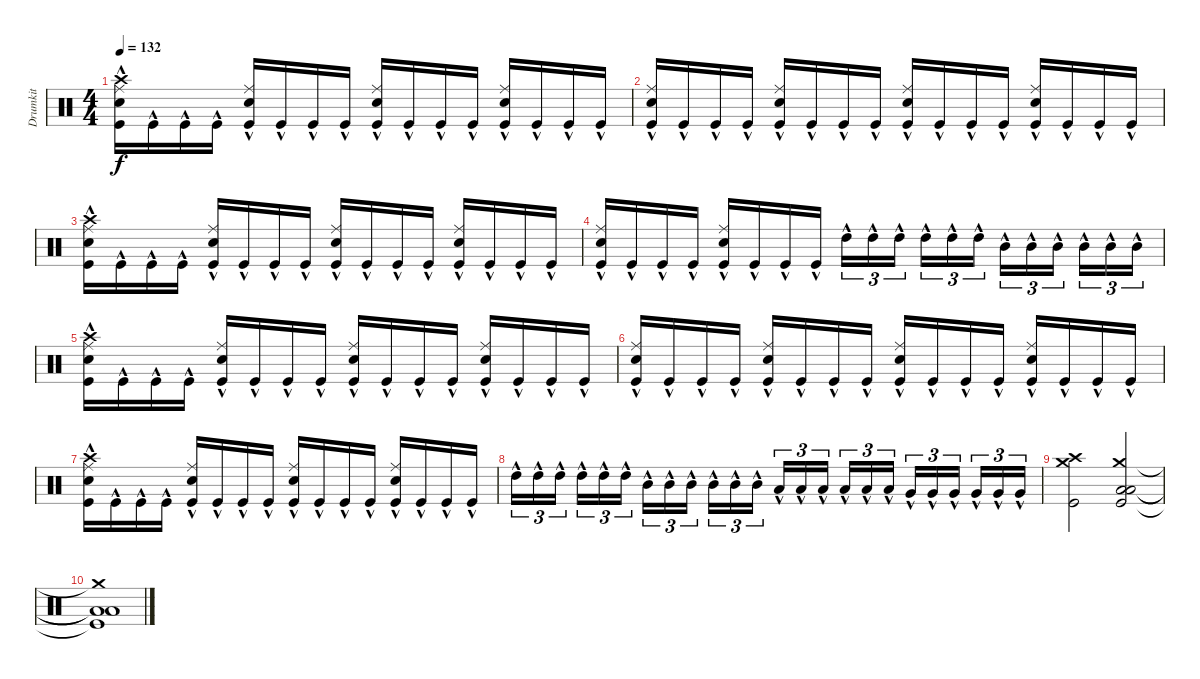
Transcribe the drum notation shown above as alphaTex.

\track ("Drumkit" "Drumkit") {instrument percussion}
\staff {score}
\articulation defaults
\ts (4 4)
\tempo 132
\clef neutral
\ks c
("Crash high (hit)"{hac} "Snare (hit) 2"{hac} "Ride (middle)"{hac} "Kick (hit)"{hac}).16{dy f} "Kick (hit)"{hac}.16 "Kick (hit)"{hac}.16 "Kick (hit)"{hac}.16 ("Snare (hit) 2"{hac} "Ride (middle)"{hac} "Kick (hit)"{hac}).16 "Kick (hit)"{hac}.16 "Kick (hit)"{hac}.16 "Kick (hit)"{hac}.16 ("Snare (hit) 2"{hac} "Ride (middle)"{hac} "Kick (hit)"{hac}).16 "Kick (hit)"{hac}.16 "Kick (hit)"{hac}.16 "Kick (hit)"{hac}.16 ("Snare (hit) 2"{hac} "Ride (middle)"{hac} "Kick (hit)"{hac}).16 "Kick (hit)"{hac}.16 "Kick (hit)"{hac}.16 "Kick (hit)"{hac}.16 |
("Snare (hit) 2"{hac} "Ride (middle)"{hac} "Kick (hit)"{hac}).16 "Kick (hit)"{hac}.16 "Kick (hit)"{hac}.16 "Kick (hit)"{hac}.16 ("Snare (hit) 2"{hac} "Ride (middle)"{hac} "Kick (hit)"{hac}).16 "Kick (hit)"{hac}.16 "Kick (hit)"{hac}.16 "Kick (hit)"{hac}.16 ("Snare (hit) 2"{hac} "Ride (middle)"{hac} "Kick (hit)"{hac}).16 "Kick (hit)"{hac}.16 "Kick (hit)"{hac}.16 "Kick (hit)"{hac}.16 ("Snare (hit) 2"{hac} "Ride (middle)"{hac} "Kick (hit)"{hac}).16 "Kick (hit)"{hac}.16 "Kick (hit)"{hac}.16 "Kick (hit)"{hac}.16 |
("Crash high (hit)"{hac} "Snare (hit) 2"{hac} "Ride (middle)"{hac} "Kick (hit)"{hac}).16 "Kick (hit)"{hac}.16 "Kick (hit)"{hac}.16 "Kick (hit)"{hac}.16 ("Snare (hit) 2"{hac} "Ride (middle)"{hac} "Kick (hit)"{hac}).16 "Kick (hit)"{hac}.16 "Kick (hit)"{hac}.16 "Kick (hit)"{hac}.16 ("Snare (hit) 2"{hac} "Ride (middle)"{hac} "Kick (hit)"{hac}).16 "Kick (hit)"{hac}.16 "Kick (hit)"{hac}.16 "Kick (hit)"{hac}.16 ("Snare (hit) 2"{hac} "Ride (middle)"{hac} "Kick (hit)"{hac}).16 "Kick (hit)"{hac}.16 "Kick (hit)"{hac}.16 "Kick (hit)"{hac}.16 |
("Snare (hit) 2"{hac} "Ride (middle)"{hac} "Kick (hit)"{hac}).16 "Kick (hit)"{hac}.16 "Kick (hit)"{hac}.16 "Kick (hit)"{hac}.16 ("Snare (hit) 2"{hac} "Ride (middle)"{hac} "Kick (hit)"{hac}).16 "Kick (hit)"{hac}.16 "Kick (hit)"{hac}.16 "Kick (hit)"{hac}.16 "High Tom (hit)"{hac}.16{tu (3 2)} "High Tom (hit)"{hac}.16{tu (3 2)} "High Tom (hit)"{hac}.16{tu (3 2)} "High Tom (hit)"{hac}.16{tu (3 2)} "High Tom (hit)"{hac}.16{tu (3 2)} "High Tom (hit)"{hac}.16{tu (3 2)} "Mid Tom (hit)"{hac}.16{tu (3 2)} "Mid Tom (hit)"{hac}.16{tu (3 2)} "Mid Tom (hit)"{hac}.16{tu (3 2)} "Mid Tom (hit)"{hac}.16{tu (3 2)} "Mid Tom (hit)"{hac}.16{tu (3 2)} "Mid Tom (hit)"{hac}.16{tu (3 2)} |
("Crash high (hit)"{hac} "Snare (hit) 2"{hac} "Ride (middle)"{hac} "Kick (hit)"{hac}).16 "Kick (hit)"{hac}.16 "Kick (hit)"{hac}.16 "Kick (hit)"{hac}.16 ("Snare (hit) 2"{hac} "Ride (middle)"{hac} "Kick (hit)"{hac}).16 "Kick (hit)"{hac}.16 "Kick (hit)"{hac}.16 "Kick (hit)"{hac}.16 ("Snare (hit) 2"{hac} "Ride (middle)"{hac} "Kick (hit)"{hac}).16 "Kick (hit)"{hac}.16 "Kick (hit)"{hac}.16 "Kick (hit)"{hac}.16 ("Snare (hit) 2"{hac} "Ride (middle)"{hac} "Kick (hit)"{hac}).16 "Kick (hit)"{hac}.16 "Kick (hit)"{hac}.16 "Kick (hit)"{hac}.16 |
("Snare (hit) 2"{hac} "Ride (middle)"{hac} "Kick (hit)"{hac}).16 "Kick (hit)"{hac}.16 "Kick (hit)"{hac}.16 "Kick (hit)"{hac}.16 ("Snare (hit) 2"{hac} "Ride (middle)"{hac} "Kick (hit)"{hac}).16 "Kick (hit)"{hac}.16 "Kick (hit)"{hac}.16 "Kick (hit)"{hac}.16 ("Snare (hit) 2"{hac} "Ride (middle)"{hac} "Kick (hit)"{hac}).16 "Kick (hit)"{hac}.16 "Kick (hit)"{hac}.16 "Kick (hit)"{hac}.16 ("Snare (hit) 2"{hac} "Ride (middle)"{hac} "Kick (hit)"{hac}).16 "Kick (hit)"{hac}.16 "Kick (hit)"{hac}.16 "Kick (hit)"{hac}.16 |
("Crash high (hit)"{hac} "Snare (hit) 2"{hac} "Ride (middle)"{hac} "Kick (hit)"{hac}).16 "Kick (hit)"{hac}.16 "Kick (hit)"{hac}.16 "Kick (hit)"{hac}.16 ("Snare (hit) 2"{hac} "Ride (middle)"{hac} "Kick (hit)"{hac}).16 "Kick (hit)"{hac}.16 "Kick (hit)"{hac}.16 "Kick (hit)"{hac}.16 ("Snare (hit) 2"{hac} "Ride (middle)"{hac} "Kick (hit)"{hac}).16 "Kick (hit)"{hac}.16 "Kick (hit)"{hac}.16 "Kick (hit)"{hac}.16 ("Snare (hit) 2"{hac} "Ride (middle)"{hac} "Kick (hit)"{hac}).16 "Kick (hit)"{hac}.16 "Kick (hit)"{hac}.16 "Kick (hit)"{hac}.16 |
"High Tom (hit)"{hac}.16{tu (3 2)} "High Tom (hit)"{hac}.16{tu (3 2)} "High Tom (hit)"{hac}.16{tu (3 2)} "High Tom (hit)"{hac}.16{tu (3 2)} "High Tom (hit)"{hac}.16{tu (3 2)} "High Tom (hit)"{hac}.16{tu (3 2)} "Mid Tom (hit)"{hac}.16{tu (3 2)} "Mid Tom (hit)"{hac}.16{tu (3 2)} "Mid Tom (hit)"{hac}.16{tu (3 2)} "Mid Tom (hit)"{hac}.16{tu (3 2)} "Mid Tom (hit)"{hac}.16{tu (3 2)} "Mid Tom (hit)"{hac}.16{tu (3 2)} "Low Tom (hit)"{hac}.16{tu (3 2)} "Low Tom (hit)"{hac}.16{tu (3 2)} "Low Tom (hit)"{hac}.16{tu (3 2)} "Low Tom (hit)"{hac}.16{tu (3 2)} "Low Tom (hit)"{hac}.16{tu (3 2)} "Low Tom (hit)"{hac}.16{tu (3 2)} "Very Low Tom (hit)"{hac}.16{tu (3 2)} "Very Low Tom (hit)"{hac}.16{tu (3 2)} "Very Low Tom (hit)"{hac}.16{tu (3 2)} "Very Low Tom (hit)"{hac}.16{tu (3 2)} "Very Low Tom (hit)"{hac}.16{tu (3 2)} "Very Low Tom (hit)"{hac}.16{tu (3 2)} |
("Crash high (hit)" "Crash medium (hit)" "Kick (hit)").2 ("Crash medium (hit)" "Low Tom (hit)" "Low Floor Tom (hit)" "Kick (hit)").2 |
("Crash medium (hit)"{t} "Low Tom (hit)"{t} "Low Floor Tom (hit)"{t} "Kick (hit)"{t}).1
